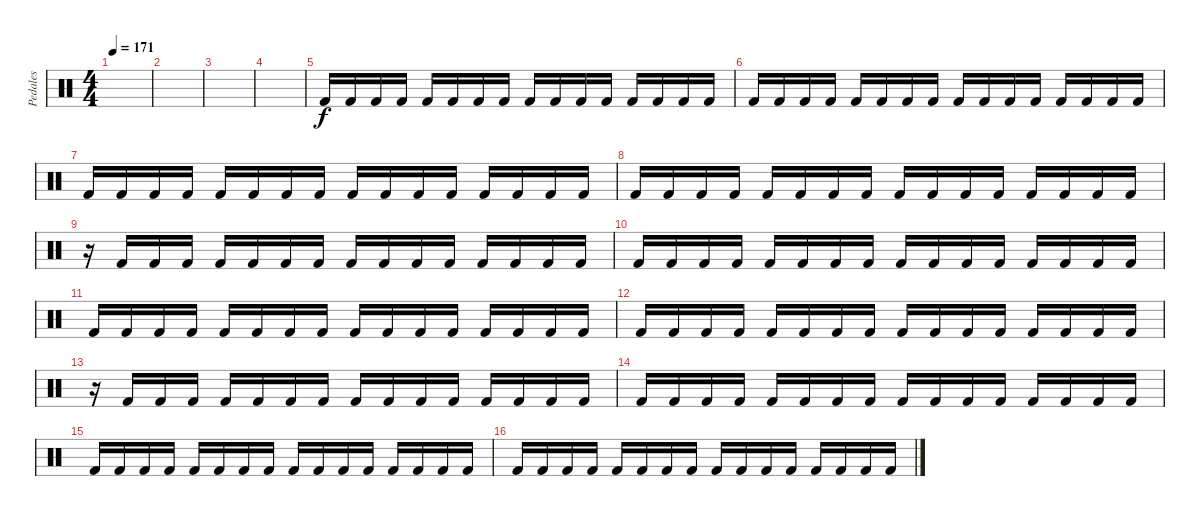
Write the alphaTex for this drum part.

\track ("Pedales" "Pedales") {instrument percussion}
\staff {score}
\articulation defaults
\ts (4 4)
\tempo 171
\clef neutral
\ks c
|
|
|
|
"Kick (hit) 2".16 "Kick (hit) 2".16 "Kick (hit) 2".16 "Kick (hit) 2".16 "Kick (hit) 2".16 "Kick (hit) 2".16 "Kick (hit) 2".16 "Kick (hit) 2".16 "Kick (hit) 2".16 "Kick (hit) 2".16 "Kick (hit) 2".16 "Kick (hit) 2".16 "Kick (hit) 2".16 "Kick (hit) 2".16 "Kick (hit) 2".16 "Kick (hit) 2".16 |
"Kick (hit) 2".16 "Kick (hit) 2".16 "Kick (hit) 2".16 "Kick (hit) 2".16 "Kick (hit) 2".16 "Kick (hit) 2".16 "Kick (hit) 2".16 "Kick (hit) 2".16 "Kick (hit) 2".16 "Kick (hit) 2".16 "Kick (hit) 2".16 "Kick (hit) 2".16 "Kick (hit) 2".16 "Kick (hit) 2".16 "Kick (hit) 2".16 "Kick (hit) 2".16 |
"Kick (hit) 2".16 "Kick (hit) 2".16 "Kick (hit) 2".16 "Kick (hit) 2".16 "Kick (hit) 2".16 "Kick (hit) 2".16 "Kick (hit) 2".16 "Kick (hit) 2".16 "Kick (hit) 2".16 "Kick (hit) 2".16 "Kick (hit) 2".16 "Kick (hit) 2".16 "Kick (hit) 2".16 "Kick (hit) 2".16 "Kick (hit) 2".16 "Kick (hit) 2".16 |
"Kick (hit) 2".16 "Kick (hit) 2".16 "Kick (hit) 2".16 "Kick (hit) 2".16 "Kick (hit) 2".16 "Kick (hit) 2".16 "Kick (hit) 2".16 "Kick (hit) 2".16 "Kick (hit) 2".16 "Kick (hit) 2".16 "Kick (hit) 2".16 "Kick (hit) 2".16 "Kick (hit) 2".16 "Kick (hit) 2".16 "Kick (hit) 2".16 "Kick (hit) 2".16 |
r.16 "Kick (hit) 2".16 "Kick (hit) 2".16 "Kick (hit) 2".16 "Kick (hit) 2".16 "Kick (hit) 2".16 "Kick (hit) 2".16 "Kick (hit) 2".16 "Kick (hit) 2".16 "Kick (hit) 2".16 "Kick (hit) 2".16 "Kick (hit) 2".16 "Kick (hit) 2".16 "Kick (hit) 2".16 "Kick (hit) 2".16 "Kick (hit) 2".16 |
"Kick (hit) 2".16 "Kick (hit) 2".16 "Kick (hit) 2".16 "Kick (hit) 2".16 "Kick (hit) 2".16 "Kick (hit) 2".16 "Kick (hit) 2".16 "Kick (hit) 2".16 "Kick (hit) 2".16 "Kick (hit) 2".16 "Kick (hit) 2".16 "Kick (hit) 2".16 "Kick (hit) 2".16 "Kick (hit) 2".16 "Kick (hit) 2".16 "Kick (hit) 2".16 |
"Kick (hit) 2".16 "Kick (hit) 2".16 "Kick (hit) 2".16 "Kick (hit) 2".16 "Kick (hit) 2".16 "Kick (hit) 2".16 "Kick (hit) 2".16 "Kick (hit) 2".16 "Kick (hit) 2".16 "Kick (hit) 2".16 "Kick (hit) 2".16 "Kick (hit) 2".16 "Kick (hit) 2".16 "Kick (hit) 2".16 "Kick (hit) 2".16 "Kick (hit) 2".16 |
"Kick (hit) 2".16 "Kick (hit) 2".16 "Kick (hit) 2".16 "Kick (hit) 2".16 "Kick (hit) 2".16 "Kick (hit) 2".16 "Kick (hit) 2".16 "Kick (hit) 2".16 "Kick (hit) 2".16 "Kick (hit) 2".16 "Kick (hit) 2".16 "Kick (hit) 2".16 "Kick (hit) 2".16 "Kick (hit) 2".16 "Kick (hit) 2".16 "Kick (hit) 2".16 |
r.16 "Kick (hit) 2".16 "Kick (hit) 2".16 "Kick (hit) 2".16 "Kick (hit) 2".16 "Kick (hit) 2".16 "Kick (hit) 2".16 "Kick (hit) 2".16 "Kick (hit) 2".16 "Kick (hit) 2".16 "Kick (hit) 2".16 "Kick (hit) 2".16 "Kick (hit) 2".16 "Kick (hit) 2".16 "Kick (hit) 2".16 "Kick (hit) 2".16 |
"Kick (hit) 2".16 "Kick (hit) 2".16 "Kick (hit) 2".16 "Kick (hit) 2".16 "Kick (hit) 2".16 "Kick (hit) 2".16 "Kick (hit) 2".16 "Kick (hit) 2".16 "Kick (hit) 2".16 "Kick (hit) 2".16 "Kick (hit) 2".16 "Kick (hit) 2".16 "Kick (hit) 2".16 "Kick (hit) 2".16 "Kick (hit) 2".16 "Kick (hit) 2".16 |
"Kick (hit) 2".16 "Kick (hit) 2".16 "Kick (hit) 2".16 "Kick (hit) 2".16 "Kick (hit) 2".16 "Kick (hit) 2".16 "Kick (hit) 2".16 "Kick (hit) 2".16 "Kick (hit) 2".16 "Kick (hit) 2".16 "Kick (hit) 2".16 "Kick (hit) 2".16 "Kick (hit) 2".16 "Kick (hit) 2".16 "Kick (hit) 2".16 "Kick (hit) 2".16 |
"Kick (hit) 2".16 "Kick (hit) 2".16 "Kick (hit) 2".16 "Kick (hit) 2".16 "Kick (hit) 2".16 "Kick (hit) 2".16 "Kick (hit) 2".16 "Kick (hit) 2".16 "Kick (hit) 2".16 "Kick (hit) 2".16 "Kick (hit) 2".16 "Kick (hit) 2".16 "Kick (hit) 2".16 "Kick (hit) 2".16 "Kick (hit) 2".16 "Kick (hit) 2".16
